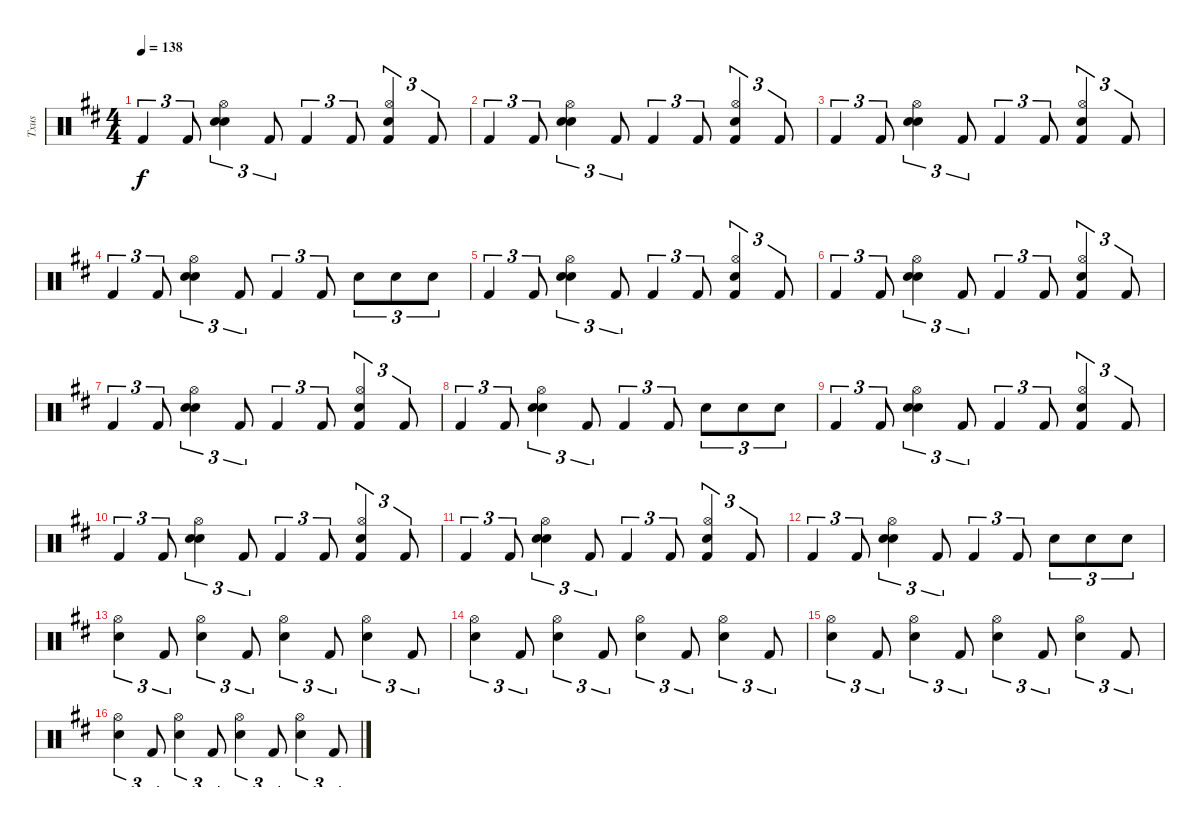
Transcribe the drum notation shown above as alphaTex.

\track ("Txus" "Txus") {instrument percussion}
\staff {score}
\articulation defaults
\ts (4 4)
\tempo 138
\clef neutral
\ks d "Kick (hit) 2".4{tu (3 2) dy f} "Kick (hit) 2".8{tu (3 2)}
("Hi-Hat (open)" "Electric Snare (hit)" "Snare (hit) 2").4{tu (3 2)} "Kick (hit) 2".8{tu (3 2)} "Kick (hit) 2".4{tu (3 2)} "Kick (hit) 2".8{tu (3 2)} ("Hi-Hat (open)" "Electric Snare (hit)" "Kick (hit) 2").4{tu (3 2)} "Kick (hit) 2".8{tu (3 2)} |
"Kick (hit) 2".4{tu (3 2)} "Kick (hit) 2".8{tu (3 2)} ("Hi-Hat (open)" "Electric Snare (hit)" "Snare (hit) 2").4{tu (3 2)} "Kick (hit) 2".8{tu (3 2)} "Kick (hit) 2".4{tu (3 2)} "Kick (hit) 2".8{tu (3 2)} ("Hi-Hat (open)" "Electric Snare (hit)" "Kick (hit) 2").4{tu (3 2)} "Kick (hit) 2".8{tu (3 2)} |
"Kick (hit) 2".4{tu (3 2)} "Kick (hit) 2".8{tu (3 2)} ("Hi-Hat (open)" "Electric Snare (hit)" "Snare (hit) 2").4{tu (3 2)} "Kick (hit) 2".8{tu (3 2)} "Kick (hit) 2".4{tu (3 2)} "Kick (hit) 2".8{tu (3 2)} ("Hi-Hat (open)" "Electric Snare (hit)" "Kick (hit) 2").4{tu (3 2)} "Kick (hit) 2".8{tu (3 2)} |
"Kick (hit) 2".4{tu (3 2)} "Kick (hit) 2".8{tu (3 2)} ("Hi-Hat (open)" "Electric Snare (hit)" "Snare (hit) 2").4{tu (3 2)} "Kick (hit) 2".8{tu (3 2)} "Kick (hit) 2".4{tu (3 2)} "Kick (hit) 2".8{tu (3 2)} "Electric Snare (hit)".8{tu (3 2)} "Electric Snare (hit)".8{tu (3 2)} "Electric Snare (hit)".8{tu (3 2)} |
"Kick (hit) 2".4{tu (3 2)} "Kick (hit) 2".8{tu (3 2)} ("Hi-Hat (open)" "Electric Snare (hit)" "Snare (hit) 2").4{tu (3 2)} "Kick (hit) 2".8{tu (3 2)} "Kick (hit) 2".4{tu (3 2)} "Kick (hit) 2".8{tu (3 2)} ("Hi-Hat (open)" "Electric Snare (hit)" "Kick (hit) 2").4{tu (3 2)} "Kick (hit) 2".8{tu (3 2)} |
"Kick (hit) 2".4{tu (3 2)} "Kick (hit) 2".8{tu (3 2)} ("Hi-Hat (open)" "Electric Snare (hit)" "Snare (hit) 2").4{tu (3 2)} "Kick (hit) 2".8{tu (3 2)} "Kick (hit) 2".4{tu (3 2)} "Kick (hit) 2".8{tu (3 2)} ("Hi-Hat (open)" "Electric Snare (hit)" "Kick (hit) 2").4{tu (3 2)} "Kick (hit) 2".8{tu (3 2)} |
"Kick (hit) 2".4{tu (3 2)} "Kick (hit) 2".8{tu (3 2)} ("Hi-Hat (open)" "Electric Snare (hit)" "Snare (hit) 2").4{tu (3 2)} "Kick (hit) 2".8{tu (3 2)} "Kick (hit) 2".4{tu (3 2)} "Kick (hit) 2".8{tu (3 2)} ("Hi-Hat (open)" "Electric Snare (hit)" "Kick (hit) 2").4{tu (3 2)} "Kick (hit) 2".8{tu (3 2)} |
"Kick (hit) 2".4{tu (3 2)} "Kick (hit) 2".8{tu (3 2)} ("Hi-Hat (open)" "Electric Snare (hit)" "Snare (hit) 2").4{tu (3 2)} "Kick (hit) 2".8{tu (3 2)} "Kick (hit) 2".4{tu (3 2)} "Kick (hit) 2".8{tu (3 2)} "Electric Snare (hit)".8{tu (3 2)} "Electric Snare (hit)".8{tu (3 2)} "Electric Snare (hit)".8{tu (3 2)} |
"Kick (hit) 2".4{tu (3 2)} "Kick (hit) 2".8{tu (3 2)} ("Hi-Hat (open)" "Electric Snare (hit)" "Snare (hit) 2").4{tu (3 2)} "Kick (hit) 2".8{tu (3 2)} "Kick (hit) 2".4{tu (3 2)} "Kick (hit) 2".8{tu (3 2)} ("Hi-Hat (open)" "Electric Snare (hit)" "Kick (hit) 2").4{tu (3 2)} "Kick (hit) 2".8{tu (3 2)} |
"Kick (hit) 2".4{tu (3 2)} "Kick (hit) 2".8{tu (3 2)} ("Hi-Hat (open)" "Electric Snare (hit)" "Snare (hit) 2").4{tu (3 2)} "Kick (hit) 2".8{tu (3 2)} "Kick (hit) 2".4{tu (3 2)} "Kick (hit) 2".8{tu (3 2)} ("Hi-Hat (open)" "Electric Snare (hit)" "Kick (hit) 2").4{tu (3 2)} "Kick (hit) 2".8{tu (3 2)} |
"Kick (hit) 2".4{tu (3 2)} "Kick (hit) 2".8{tu (3 2)} ("Hi-Hat (open)" "Electric Snare (hit)" "Snare (hit) 2").4{tu (3 2)} "Kick (hit) 2".8{tu (3 2)} "Kick (hit) 2".4{tu (3 2)} "Kick (hit) 2".8{tu (3 2)} ("Hi-Hat (open)" "Electric Snare (hit)" "Kick (hit) 2").4{tu (3 2)} "Kick (hit) 2".8{tu (3 2)} |
"Kick (hit) 2".4{tu (3 2)} "Kick (hit) 2".8{tu (3 2)} ("Hi-Hat (open)" "Electric Snare (hit)" "Snare (hit) 2").4{tu (3 2)} "Kick (hit) 2".8{tu (3 2)} "Kick (hit) 2".4{tu (3 2)} "Kick (hit) 2".8{tu (3 2)} "Electric Snare (hit)".8{tu (3 2)} "Electric Snare (hit)".8{tu (3 2)} "Electric Snare (hit)".8{tu (3 2)} |
("Hi-Hat (open)" "Electric Snare (hit)").4{tu (3 2)} "Kick (hit) 2".8{tu (3 2)} ("Hi-Hat (open)" "Electric Snare (hit)").4{tu (3 2)} "Kick (hit) 2".8{tu (3 2)} ("Hi-Hat (open)" "Electric Snare (hit)").4{tu (3 2)} "Kick (hit) 2".8{tu (3 2)} ("Hi-Hat (open)" "Electric Snare (hit)").4{tu (3 2)} "Kick (hit) 2".8{tu (3 2)} |
("Hi-Hat (open)" "Electric Snare (hit)").4{tu (3 2)} "Kick (hit) 2".8{tu (3 2)} ("Hi-Hat (open)" "Electric Snare (hit)").4{tu (3 2)} "Kick (hit) 2".8{tu (3 2)} ("Hi-Hat (open)" "Electric Snare (hit)").4{tu (3 2)} "Kick (hit) 2".8{tu (3 2)} ("Hi-Hat (open)" "Electric Snare (hit)").4{tu (3 2)} "Kick (hit) 2".8{tu (3 2)} |
("Hi-Hat (open)" "Electric Snare (hit)").4{tu (3 2)} "Kick (hit) 2".8{tu (3 2)} ("Hi-Hat (open)" "Electric Snare (hit)").4{tu (3 2)} "Kick (hit) 2".8{tu (3 2)} ("Hi-Hat (open)" "Electric Snare (hit)").4{tu (3 2)} "Kick (hit) 2".8{tu (3 2)} ("Hi-Hat (open)" "Electric Snare (hit)").4{tu (3 2)} "Kick (hit) 2".8{tu (3 2)} |
("Hi-Hat (open)" "Electric Snare (hit)").4{tu (3 2)} "Kick (hit) 2".8{tu (3 2)} ("Hi-Hat (open)" "Electric Snare (hit)").4{tu (3 2)} "Kick (hit) 2".8{tu (3 2)} ("Hi-Hat (open)" "Electric Snare (hit)").4{tu (3 2)} "Kick (hit) 2".8{tu (3 2)} ("Hi-Hat (open)" "Electric Snare (hit)").4{tu (3 2)} "Kick (hit) 2".8{tu (3 2)}
